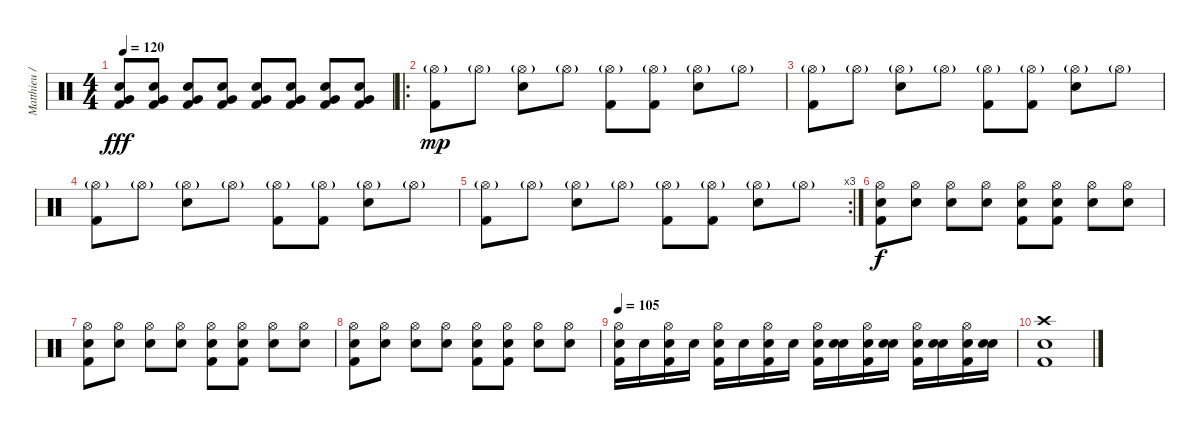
\track ("Matthieu / drums" "Matthieu /") {instrument percussion}
\staff {score}
\articulation defaults
\ts (4 4)
\tempo 120
\clef neutral
\ks c
("Very Low Tom (hit)" "Snare (hit) 2" "Kick (hit) 2").8{dy fff} ("Very Low Tom (hit)" "Snare (hit) 2" "Kick (hit) 2").8 ("Very Low Tom (hit)" "Snare (hit) 2" "Kick (hit) 2").8 ("Very Low Tom (hit)" "Snare (hit) 2" "Kick (hit) 2").8 ("Very Low Tom (hit)" "Snare (hit) 2" "Kick (hit) 2").8 ("Very Low Tom (hit)" "Snare (hit) 2" "Kick (hit) 2").8 ("Very Low Tom (hit)" "Snare (hit) 2" "Kick (hit) 2").8 ("Very Low Tom (hit)" "Snare (hit) 2" "Kick (hit) 2").8 |
\ro
("Hi-Hat (open)"{g} "Kick (hit) 2").8{dy mp volume 16} "Hi-Hat (open)"{g}.8 ("Hi-Hat (open)"{g} "Snare (hit) 2").8 "Hi-Hat (open)"{g}.8 ("Hi-Hat (open)"{g} "Kick (hit) 2").8 ("Hi-Hat (open)"{g} "Kick (hit) 2").8 ("Hi-Hat (open)"{g} "Snare (hit) 2").8 "Hi-Hat (open)"{g}.8 |
("Hi-Hat (open)"{g} "Kick (hit) 2").8 "Hi-Hat (open)"{g}.8 ("Hi-Hat (open)"{g} "Snare (hit) 2").8 "Hi-Hat (open)"{g}.8 ("Hi-Hat (open)"{g} "Kick (hit) 2").8 ("Hi-Hat (open)"{g} "Kick (hit) 2").8 ("Hi-Hat (open)"{g} "Snare (hit) 2").8 "Hi-Hat (open)"{g}.8 |
("Hi-Hat (open)"{g} "Kick (hit) 2").8 "Hi-Hat (open)"{g}.8 ("Hi-Hat (open)"{g} "Snare (hit) 2").8 "Hi-Hat (open)"{g}.8 ("Hi-Hat (open)"{g} "Kick (hit) 2").8 ("Hi-Hat (open)"{g} "Kick (hit) 2").8 ("Hi-Hat (open)"{g} "Snare (hit) 2").8 "Hi-Hat (open)"{g}.8 |
\rc 3
("Hi-Hat (open)"{g} "Kick (hit) 2").8 "Hi-Hat (open)"{g}.8 ("Hi-Hat (open)"{g} "Snare (hit) 2").8 "Hi-Hat (open)"{g}.8 ("Hi-Hat (open)"{g} "Kick (hit) 2").8 ("Hi-Hat (open)"{g} "Kick (hit) 2").8 ("Hi-Hat (open)"{g} "Snare (hit) 2").8 "Hi-Hat (open)"{g}.8 |
("Hi-Hat (open)" "Snare (hit) 2" "Kick (hit) 2").8{dy f} ("Hi-Hat (open)" "Snare (hit) 2").8 ("Hi-Hat (open)" "Snare (hit) 2").8 ("Hi-Hat (open)" "Snare (hit) 2").8 ("Hi-Hat (open)" "Snare (hit) 2" "Kick (hit) 2").8 ("Hi-Hat (open)" "Snare (hit) 2" "Kick (hit) 2").8 ("Hi-Hat (open)" "Snare (hit) 2").8 ("Hi-Hat (open)" "Snare (hit) 2").8 |
("Hi-Hat (open)" "Snare (hit) 2" "Kick (hit) 2").8 ("Hi-Hat (open)" "Snare (hit) 2").8 ("Hi-Hat (open)" "Snare (hit) 2").8 ("Hi-Hat (open)" "Snare (hit) 2").8 ("Hi-Hat (open)" "Snare (hit) 2" "Kick (hit) 2").8 ("Hi-Hat (open)" "Snare (hit) 2" "Kick (hit) 2").8 ("Hi-Hat (open)" "Snare (hit) 2").8 ("Hi-Hat (open)" "Snare (hit) 2").8 |
("Hi-Hat (open)" "Snare (hit) 2" "Kick (hit) 2").8 ("Hi-Hat (open)" "Snare (hit) 2").8 ("Hi-Hat (open)" "Snare (hit) 2").8 ("Hi-Hat (open)" "Snare (hit) 2").8 ("Hi-Hat (open)" "Snare (hit) 2" "Kick (hit) 2").8 ("Hi-Hat (open)" "Snare (hit) 2" "Kick (hit) 2").8 ("Hi-Hat (open)" "Snare (hit) 2").8 ("Hi-Hat (open)" "Snare (hit) 2").8 |
\tempo 105
("Hi-Hat (open)" "Snare (hit) 2" "Kick (hit) 2").16 "Snare (hit)".16 ("Hi-Hat (open)" "Snare (hit) 2" "Kick (hit) 2").16 "Snare (hit)".16 ("Hi-Hat (open)" "Snare (hit) 2" "Kick (hit) 2").16 "Snare (hit)".16 ("Hi-Hat (open)" "Snare (hit) 2" "Kick (hit) 2").16 "Snare (hit)".16 ("Hi-Hat (open)" "Snare (hit) 2" "Kick (hit) 2").16 ("Snare (hit)" "Snare (hit) 2").16 ("Hi-Hat (open)" "Snare (hit) 2" "Kick (hit) 2").16 ("Snare (hit)" "Snare (hit) 2").16 ("Hi-Hat (open)" "Snare (hit) 2" "Kick (hit) 2").16 ("Snare (hit)" "Snare (hit) 2").16 ("Hi-Hat (open)" "Snare (hit) 2" "Kick (hit) 2").16 ("Snare (hit)" "Snare (hit) 2").16 |
("Crash high (hit)" "Snare (hit) 2" "Kick (hit) 2").1
